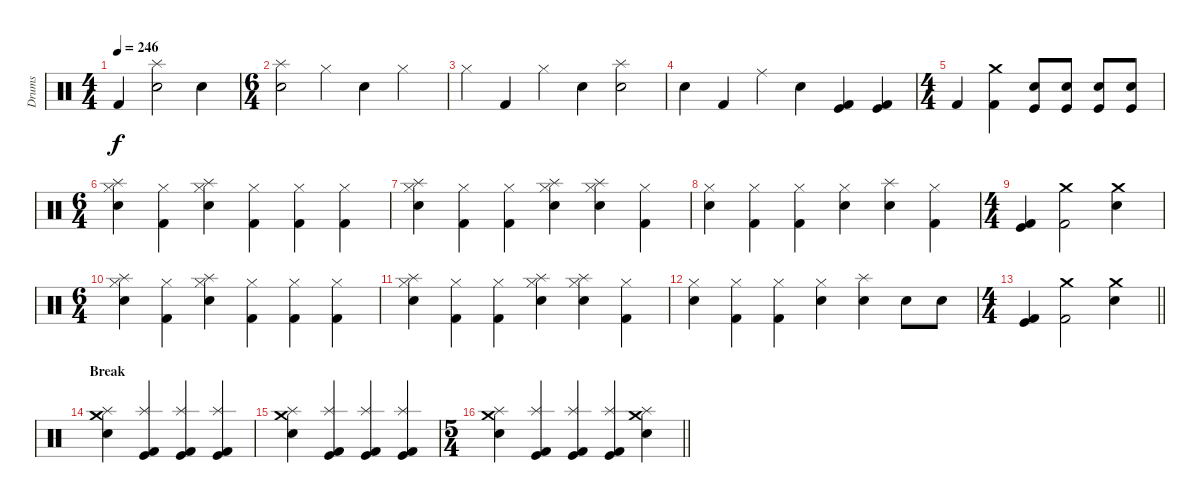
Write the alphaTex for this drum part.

\track ("Drums" "Drums") {instrument percussion}
\staff {score}
\articulation defaults
\ts (4 4)
\tempo 246
\clef neutral
\ks c "Kick (hit) 2".4{dy f}
("Splash (hit)" "Snare (hit) 2").2 "Snare (hit) 2".4 |
\ts (6 4)
("Splash (hit)" "Snare (hit) 2").2 "Hi-Hat (closed)".4 "Snare (hit) 2".4 "Hi-Hat (closed)".2 |
"Hi-Hat (closed)".4 "Kick (hit) 2".4 "Hi-Hat (closed)".4 "Snare (hit) 2".4 ("Splash (hit)" "Snare (hit) 2").2 |
"Snare (hit) 2".4 "Kick (hit) 2".4 "Ride (middle)".4 "Snare (hit) 2".4 ("Kick (hit)" "Kick (hit) 2").4 ("Kick (hit)" "Kick (hit) 2").4 |
\ts (4 4)
"Kick (hit) 2".4 ("Crash medium (hit)" "Kick (hit) 2").4 ("Kick (hit)" "Snare (hit) 2").8 ("Kick (hit)" "Snare (hit) 2").8 ("Kick (hit)" "Snare (hit) 2").8 ("Kick (hit)" "Snare (hit) 2").8 |
\ts (6 4)
("Hi-Hat (closed)" "Splash (hit)" "Snare (hit) 2").4 ("Hi-Hat (closed)" "Kick (hit) 2").4 ("Splash (hit)" "Hi-Hat (closed)" "Snare (hit) 2").4 ("Hi-Hat (closed)" "Kick (hit) 2").4 ("Hi-Hat (closed)" "Kick (hit) 2").4 ("Hi-Hat (closed)" "Kick (hit) 2").4 |
("Splash (hit)" "Hi-Hat (closed)" "Snare (hit) 2").4 ("Hi-Hat (closed)" "Kick (hit) 2").4 ("Hi-Hat (closed)" "Kick (hit) 2").4 ("Splash (hit)" "Hi-Hat (closed)" "Snare (hit) 2").4 ("Splash (hit)" "Hi-Hat (closed)" "Snare (hit) 2").4 ("Hi-Hat (closed)" "Kick (hit) 2").4 |
("Hi-Hat (closed)" "Snare (hit) 2").4 ("Hi-Hat (closed)" "Kick (hit) 2").4 ("Hi-Hat (closed)" "Kick (hit) 2").4 ("Hi-Hat (closed)" "Snare (hit) 2").4 ("Splash (hit)" "Snare (hit) 2").4 ("Hi-Hat (closed)" "Kick (hit) 2").4 |
\ts (4 4)
("Kick (hit)" "Kick (hit) 2").4 ("Crash medium (hit)" "Kick (hit) 2").2 ("Crash medium (hit)" "Snare (hit) 2").4 |
\ts (6 4)
("Hi-Hat (closed)" "Splash (hit)" "Snare (hit) 2").4 ("Hi-Hat (closed)" "Kick (hit) 2").4 ("Splash (hit)" "Hi-Hat (closed)" "Snare (hit) 2").4 ("Hi-Hat (closed)" "Kick (hit) 2").4 ("Hi-Hat (closed)" "Kick (hit) 2").4 ("Hi-Hat (closed)" "Kick (hit) 2").4 |
("Splash (hit)" "Hi-Hat (closed)" "Snare (hit) 2").4 ("Hi-Hat (closed)" "Kick (hit) 2").4 ("Hi-Hat (closed)" "Kick (hit) 2").4 ("Splash (hit)" "Hi-Hat (closed)" "Snare (hit) 2").4 ("Splash (hit)" "Hi-Hat (closed)" "Snare (hit) 2").4 ("Hi-Hat (closed)" "Kick (hit) 2").4 |
("Hi-Hat (closed)" "Snare (hit) 2").4 ("Hi-Hat (closed)" "Kick (hit) 2").4 ("Hi-Hat (closed)" "Kick (hit) 2").4 ("Hi-Hat (closed)" "Snare (hit) 2").4 ("Splash (hit)" "Snare (hit) 2").4 "Snare (hit) 2".8 "Snare (hit) 2".8 |
\ts (4 4)
\barLineRight lightlight
("Kick (hit)" "Kick (hit) 2").4 ("Crash medium (hit)" "Kick (hit) 2").2 ("Crash medium (hit)" "Snare (hit) 2").4 |
\section ("" "Break")
("Crash medium (hit)" "Splash (hit)" "Snare (hit) 2").4 ("Splash (hit)" "Kick (hit)" "Kick (hit) 2").4 ("Splash (hit)" "Kick (hit)" "Kick (hit) 2").4 ("Splash (hit)" "Kick (hit)" "Kick (hit) 2").4 |
("Crash medium (hit)" "Splash (hit)" "Snare (hit) 2").4 ("Splash (hit)" "Kick (hit)" "Kick (hit) 2").4 ("Splash (hit)" "Kick (hit)" "Kick (hit) 2").4 ("Splash (hit)" "Kick (hit)" "Kick (hit) 2").4 |
\ts (5 4)
\barLineRight lightlight
("Crash medium (hit)" "Splash (hit)" "Snare (hit) 2").4 ("Splash (hit)" "Kick (hit)" "Kick (hit) 2").4 ("Splash (hit)" "Kick (hit)" "Kick (hit) 2").4 ("Splash (hit)" "Kick (hit)" "Kick (hit) 2").4 ("Crash medium (hit)" "Splash (hit)" "Snare (hit) 2").4
